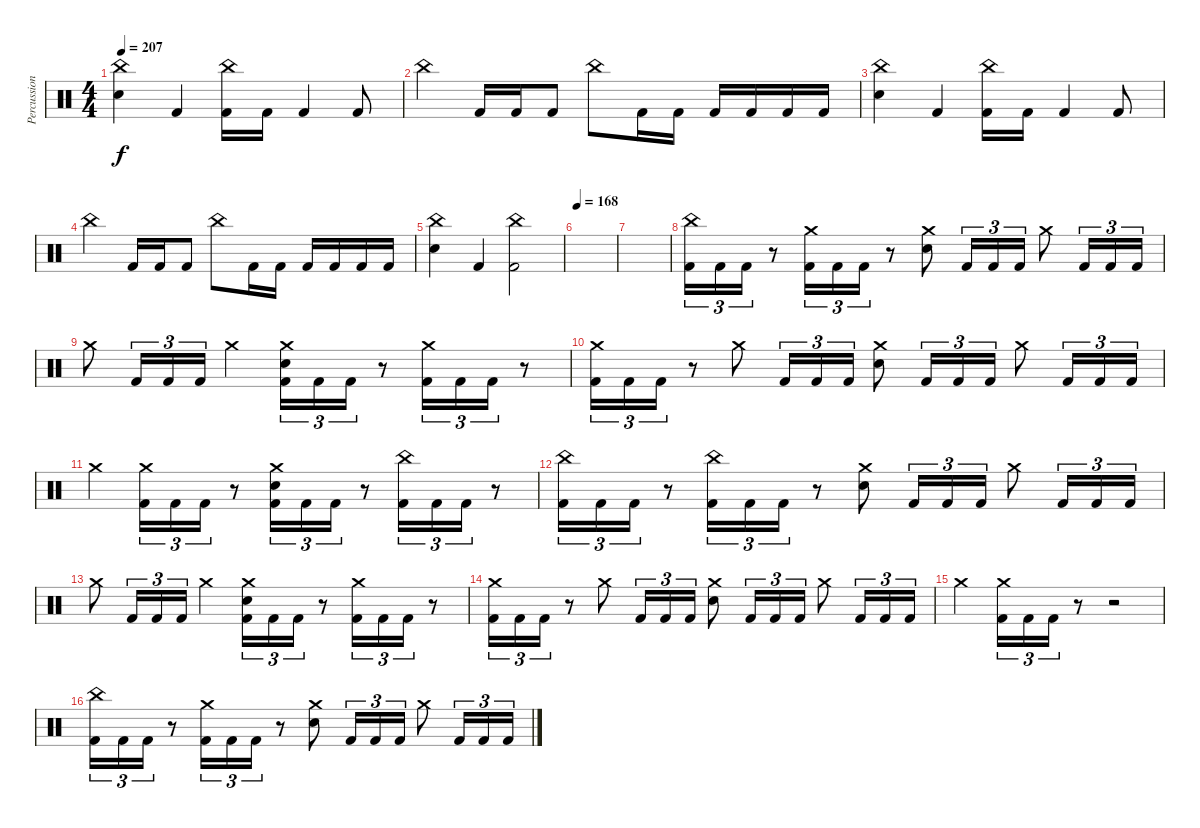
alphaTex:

\track ("Percussion" "Percussion") {instrument percussion}
\staff {score}
\articulation defaults
\ts (4 4)
\tempo 207
\clef neutral
\ks c
("China (hit)" "Electric Snare (hit)").4{dy f} "Kick (hit) 2".4 ("China (hit)" "Kick (hit) 2").16 "Kick (hit) 2".16 "Kick (hit) 2".4 "Kick (hit) 2".8 |
"China (hit)".4 "Kick (hit) 2".16 "Kick (hit) 2".16 "Kick (hit) 2".8 "China (hit)".8 "Kick (hit) 2".16 "Kick (hit) 2".16 "Kick (hit) 2".16 "Kick (hit) 2".16 "Kick (hit) 2".16 "Kick (hit) 2".16 |
("China (hit)" "Electric Snare (hit)").4 "Kick (hit) 2".4 ("China (hit)" "Kick (hit) 2").16 "Kick (hit) 2".16 "Kick (hit) 2".4 "Kick (hit) 2".8 |
"China (hit)".4 "Kick (hit) 2".16 "Kick (hit) 2".16 "Kick (hit) 2".8 "China (hit)".8 "Kick (hit) 2".16 "Kick (hit) 2".16 "Kick (hit) 2".16 "Kick (hit) 2".16 "Kick (hit) 2".16 "Kick (hit) 2".16 |
("China (hit)" "Electric Snare (hit)").4 "Kick (hit) 2".4 ("China (hit)" "Kick (hit) 2").2 |
\tempo 168
|
|
("China (hit)" "Kick (hit) 2").16{tu (3 2)} "Kick (hit) 2".16{tu (3 2)} "Kick (hit) 2".16{tu (3 2)} r.8 ("Crash medium (hit)" "Kick (hit) 2").16{tu (3 2)} "Kick (hit) 2".16{tu (3 2)} "Kick (hit) 2".16{tu (3 2)} r.8 ("Crash medium (hit)" "Electric Snare (hit)").8 "Kick (hit) 2".16{tu (3 2)} "Kick (hit) 2".16{tu (3 2)} "Kick (hit) 2".16{tu (3 2)} "Crash medium (hit)".8 "Kick (hit) 2".16{tu (3 2)} "Kick (hit) 2".16{tu (3 2)} "Kick (hit) 2".16{tu (3 2)} |
"Crash medium (hit)".8 "Kick (hit) 2".16{tu (3 2)} "Kick (hit) 2".16{tu (3 2)} "Kick (hit) 2".16{tu (3 2)} "Crash medium (hit)".4 ("Crash medium (hit)" "Electric Snare (hit)" "Kick (hit) 2").16{tu (3 2)} "Kick (hit) 2".16{tu (3 2)} "Kick (hit) 2".16{tu (3 2)} r.8 ("Crash medium (hit)" "Kick (hit) 2").16{tu (3 2)} "Kick (hit) 2".16{tu (3 2)} "Kick (hit) 2".16{tu (3 2)} r.8 |
("Crash medium (hit)" "Kick (hit) 2").16{tu (3 2)} "Kick (hit) 2".16{tu (3 2)} "Kick (hit) 2".16{tu (3 2)} r.8 "Crash medium (hit)".8 "Kick (hit) 2".16{tu (3 2)} "Kick (hit) 2".16{tu (3 2)} "Kick (hit) 2".16{tu (3 2)} ("Crash medium (hit)" "Electric Snare (hit)").8 "Kick (hit) 2".16{tu (3 2)} "Kick (hit) 2".16{tu (3 2)} "Kick (hit) 2".16{tu (3 2)} "Crash medium (hit)".8 "Kick (hit) 2".16{tu (3 2)} "Kick (hit) 2".16{tu (3 2)} "Kick (hit) 2".16{tu (3 2)} |
"Crash medium (hit)".4 ("Crash medium (hit)" "Kick (hit) 2").16{tu (3 2)} "Kick (hit) 2".16{tu (3 2)} "Kick (hit) 2".16{tu (3 2)} r.8 ("Crash medium (hit)" "Electric Snare (hit)" "Kick (hit) 2").16{tu (3 2)} "Kick (hit) 2".16{tu (3 2)} "Kick (hit) 2".16{tu (3 2)} r.8 ("China (hit)" "Kick (hit) 2").16{tu (3 2)} "Kick (hit) 2".16{tu (3 2)} "Kick (hit) 2".16{tu (3 2)} r.8 |
("China (hit)" "Kick (hit) 2").16{tu (3 2)} "Kick (hit) 2".16{tu (3 2)} "Kick (hit) 2".16{tu (3 2)} r.8 ("China (hit)" "Kick (hit) 2").16{tu (3 2)} "Kick (hit) 2".16{tu (3 2)} "Kick (hit) 2".16{tu (3 2)} r.8 ("Crash medium (hit)" "Electric Snare (hit)").8 "Kick (hit) 2".16{tu (3 2)} "Kick (hit) 2".16{tu (3 2)} "Kick (hit) 2".16{tu (3 2)} "Crash medium (hit)".8 "Kick (hit) 2".16{tu (3 2)} "Kick (hit) 2".16{tu (3 2)} "Kick (hit) 2".16{tu (3 2)} |
"Crash medium (hit)".8 "Kick (hit) 2".16{tu (3 2)} "Kick (hit) 2".16{tu (3 2)} "Kick (hit) 2".16{tu (3 2)} "Crash medium (hit)".4 ("Crash medium (hit)" "Electric Snare (hit)" "Kick (hit) 2").16{tu (3 2)} "Kick (hit) 2".16{tu (3 2)} "Kick (hit) 2".16{tu (3 2)} r.8 ("Crash medium (hit)" "Kick (hit) 2").16{tu (3 2)} "Kick (hit) 2".16{tu (3 2)} "Kick (hit) 2".16{tu (3 2)} r.8 |
("Crash medium (hit)" "Kick (hit) 2").16{tu (3 2)} "Kick (hit) 2".16{tu (3 2)} "Kick (hit) 2".16{tu (3 2)} r.8 "Crash medium (hit)".8 "Kick (hit) 2".16{tu (3 2)} "Kick (hit) 2".16{tu (3 2)} "Kick (hit) 2".16{tu (3 2)} ("Crash medium (hit)" "Electric Snare (hit)").8 "Kick (hit) 2".16{tu (3 2)} "Kick (hit) 2".16{tu (3 2)} "Kick (hit) 2".16{tu (3 2)} "Crash medium (hit)".8 "Kick (hit) 2".16{tu (3 2)} "Kick (hit) 2".16{tu (3 2)} "Kick (hit) 2".16{tu (3 2)} |
"Crash medium (hit)".4 ("Crash medium (hit)" "Kick (hit) 2").16{tu (3 2)} "Kick (hit) 2".16{tu (3 2)} "Kick (hit) 2".16{tu (3 2)} r.8 r.2 |
("China (hit)" "Kick (hit) 2").16{tu (3 2)} "Kick (hit) 2".16{tu (3 2)} "Kick (hit) 2".16{tu (3 2)} r.8 ("Crash medium (hit)" "Kick (hit) 2").16{tu (3 2)} "Kick (hit) 2".16{tu (3 2)} "Kick (hit) 2".16{tu (3 2)} r.8 ("Crash medium (hit)" "Electric Snare (hit)").8 "Kick (hit) 2".16{tu (3 2)} "Kick (hit) 2".16{tu (3 2)} "Kick (hit) 2".16{tu (3 2)} "Crash medium (hit)".8 "Kick (hit) 2".16{tu (3 2)} "Kick (hit) 2".16{tu (3 2)} "Kick (hit) 2".16{tu (3 2)}
